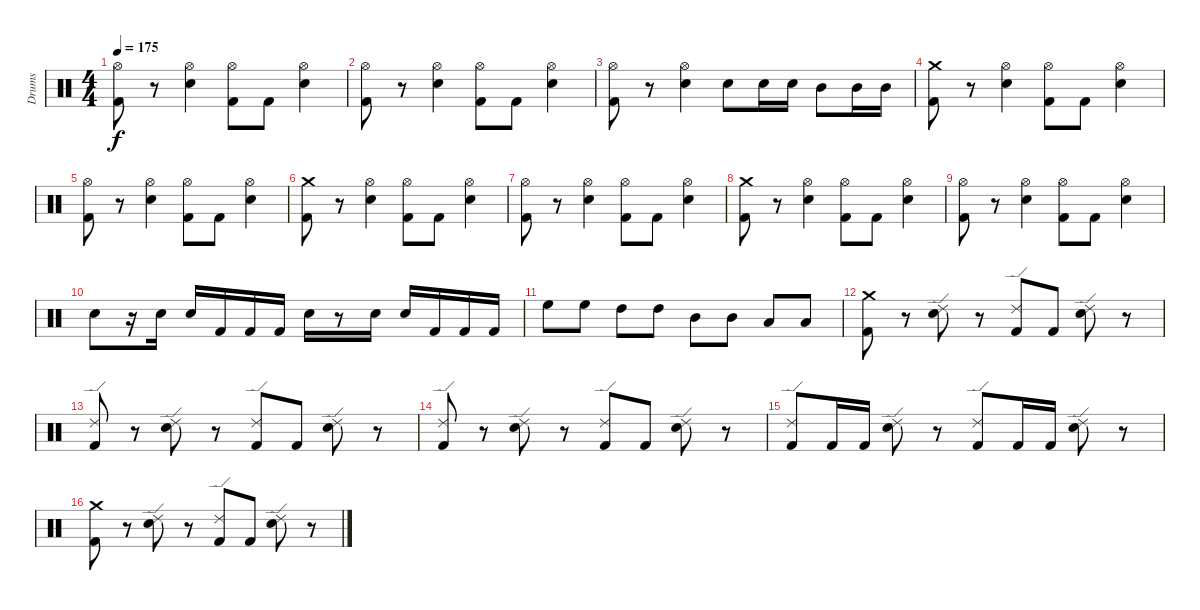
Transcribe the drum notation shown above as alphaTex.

\track ("Drums" "Drums") {instrument percussion}
\staff {score}
\articulation defaults
\ts (4 4)
\tempo 175
\clef neutral
\ks c
("Hi-Hat (open)" "Kick (hit) 2").8{dy f} r.8 ("Hi-Hat (open)" "Electric Snare (hit)").4 ("Hi-Hat (open)" "Kick (hit) 2").8 "Kick (hit) 2".8 ("Hi-Hat (open)" "Electric Snare (hit)").4 |
("Hi-Hat (open)" "Kick (hit) 2").8 r.8 ("Hi-Hat (open)" "Electric Snare (hit)").4 ("Hi-Hat (open)" "Kick (hit) 2").8 "Kick (hit) 2".8 ("Hi-Hat (open)" "Electric Snare (hit)").4 |
("Hi-Hat (open)" "Kick (hit) 2").8 r.8 ("Hi-Hat (open)" "Electric Snare (hit)").4 "Electric Snare (hit)".8 "Electric Snare (hit)".16 "Electric Snare (hit)".16 "Mid Tom (hit)".8 "Mid Tom (hit)".16 "Mid Tom (hit)".16 |
("Kick (hit) 2" "Crash medium (hit)").8 r.8 ("Hi-Hat (open)" "Electric Snare (hit)").4 ("Hi-Hat (open)" "Kick (hit) 2").8 "Kick (hit) 2".8 ("Hi-Hat (open)" "Electric Snare (hit)").4 |
("Hi-Hat (open)" "Kick (hit) 2").8 r.8 ("Hi-Hat (open)" "Electric Snare (hit)").4 ("Hi-Hat (open)" "Kick (hit) 2").8 "Kick (hit) 2".8 ("Hi-Hat (open)" "Electric Snare (hit)").4 |
("Crash medium (hit)" "Kick (hit) 2").8 r.8 ("Hi-Hat (open)" "Electric Snare (hit)").4 ("Hi-Hat (open)" "Kick (hit) 2").8 "Kick (hit) 2".8 ("Hi-Hat (open)" "Electric Snare (hit)").4 |
("Hi-Hat (open)" "Kick (hit) 2").8 r.8 ("Hi-Hat (open)" "Electric Snare (hit)").4 ("Hi-Hat (open)" "Kick (hit) 2").8 "Kick (hit) 2".8 ("Hi-Hat (open)" "Electric Snare (hit)").4 |
("Kick (hit) 2" "Crash medium (hit)").8 r.8 ("Hi-Hat (open)" "Electric Snare (hit)").4 ("Hi-Hat (open)" "Kick (hit) 2").8 "Kick (hit) 2".8 ("Hi-Hat (open)" "Electric Snare (hit)").4 |
("Hi-Hat (open)" "Kick (hit) 2").8 r.8 ("Hi-Hat (open)" "Electric Snare (hit)").4 ("Hi-Hat (open)" "Kick (hit) 2").8 "Kick (hit) 2".8 ("Hi-Hat (open)" "Electric Snare (hit)").4 |
"Electric Snare (hit)".8 r.16 "Electric Snare (hit)".16 "Electric Snare (hit)".16 "Kick (hit) 2".16 "Kick (hit) 2".16 "Kick (hit) 2".16 "Electric Snare (hit)".16 r.8 "Electric Snare (hit)".16 "Electric Snare (hit)".16 "Kick (hit) 2".16 "Kick (hit) 2".16 "Kick (hit) 2".16 |
"High Floor Tom (hit)".8 "High Floor Tom (hit)".8 "High Tom (hit)".8 "High Tom (hit)".8 "Mid Tom (hit)".8 "Mid Tom (hit)".8 "Low Tom (hit)".8 "Low Tom (hit)".8 |
("Crash medium (hit)" "Kick (hit) 2").8 r.8 ("Ride (edge) 2" "Electric Snare (hit)").8 r.8 ("Ride (edge) 2" "Kick (hit) 2").8 "Kick (hit) 2".8 ("Ride (edge) 2" "Electric Snare (hit)").8 r.8 |
("Ride (edge) 2" "Kick (hit) 2").8 r.8 ("Ride (edge) 2" "Electric Snare (hit)").8 r.8 ("Ride (edge) 2" "Kick (hit) 2").8 "Kick (hit) 2".8 ("Ride (edge) 2" "Electric Snare (hit)").8 r.8 |
("Ride (edge) 2" "Kick (hit) 2").8 r.8 ("Ride (edge) 2" "Electric Snare (hit)").8 r.8 ("Ride (edge) 2" "Kick (hit) 2").8 "Kick (hit) 2".8 ("Ride (edge) 2" "Electric Snare (hit)").8 r.8 |
("Ride (edge) 2" "Kick (hit) 2").8 "Kick (hit) 2".16 "Kick (hit) 2".16 ("Ride (edge) 2" "Electric Snare (hit)").8 r.8 ("Ride (edge) 2" "Kick (hit) 2").8 "Kick (hit) 2".16 "Kick (hit) 2".16 ("Ride (edge) 2" "Electric Snare (hit)").8 r.8 |
("Crash medium (hit)" "Kick (hit) 2").8 r.8 ("Ride (edge) 2" "Electric Snare (hit)").8 r.8 ("Ride (edge) 2" "Kick (hit) 2").8 "Kick (hit) 2".8 ("Ride (edge) 2" "Electric Snare (hit)").8 r.8
